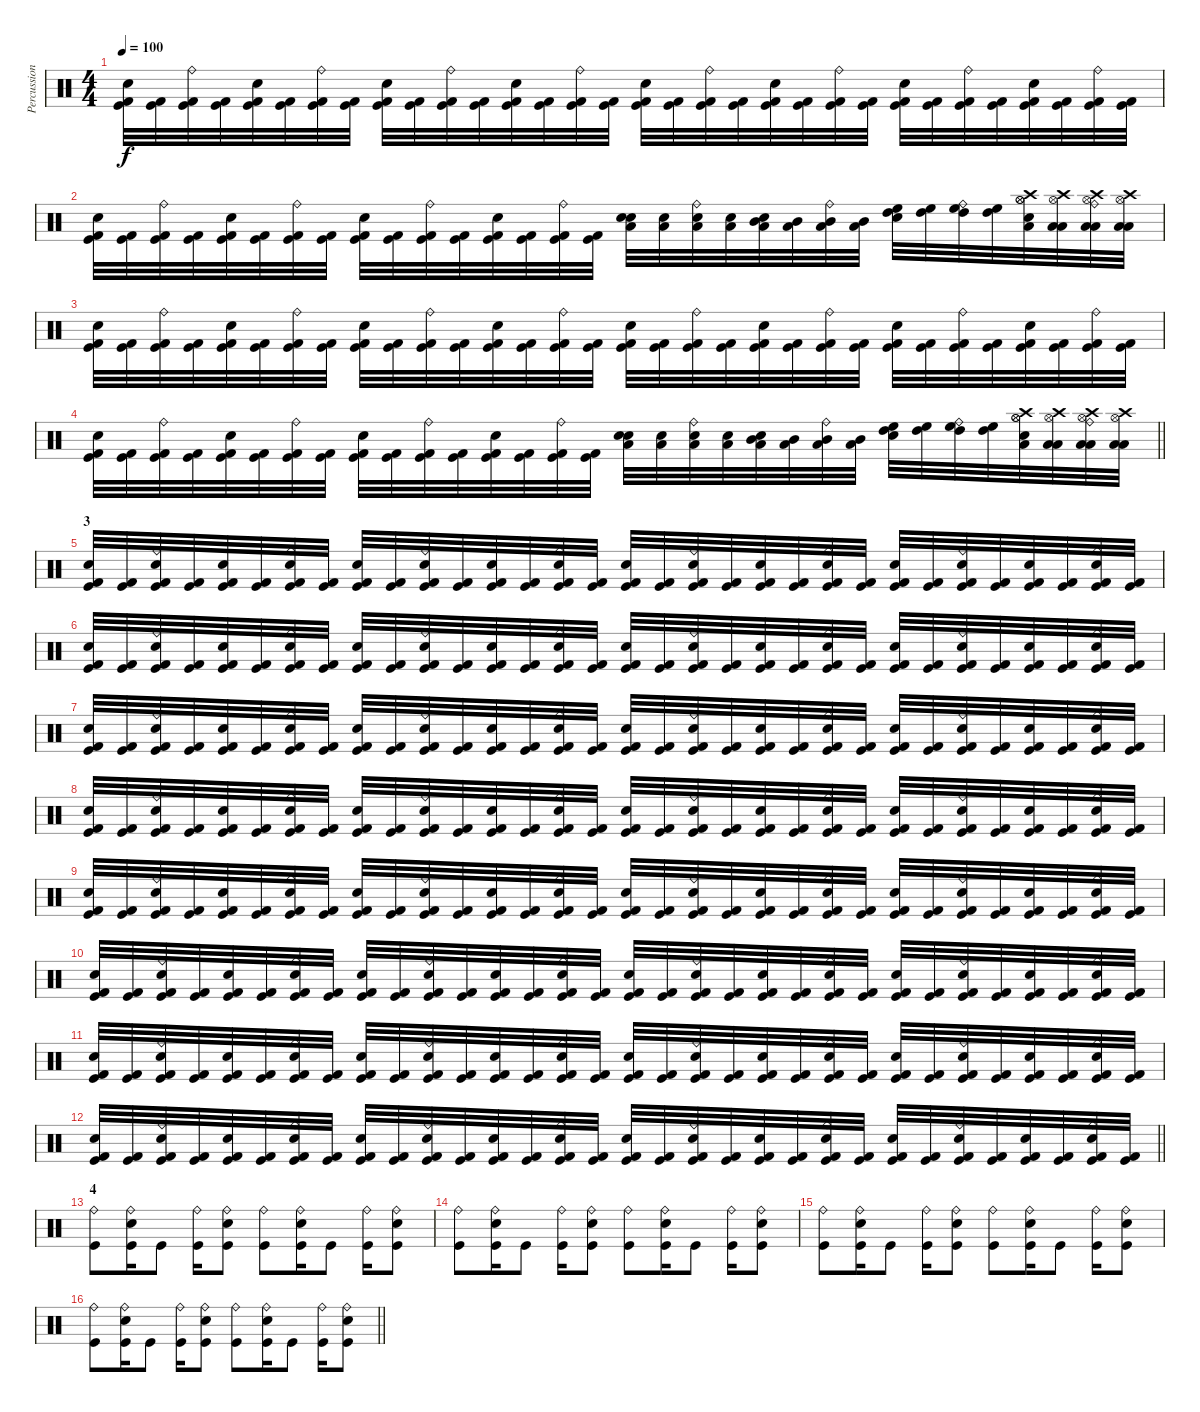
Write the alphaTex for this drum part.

\track ("Percussion" "Percussion") {instrument percussion}
\staff {score}
\articulation defaults
\ts (4 4)
\tempo 100
\clef neutral
\ks c
("Snare (hit) 2" "Kick (hit) 2" "Kick (hit)").32{dy f} ("Kick (hit) 2" "Kick (hit)").32 ("Ride (bell)" "Kick (hit) 2" "Kick (hit)").32 ("Kick (hit) 2" "Kick (hit)").32 ("Electric Snare (hit)" "Kick (hit) 2" "Kick (hit)").32 ("Kick (hit) 2" "Kick (hit)").32 ("Ride (bell)" "Kick (hit) 2" "Kick (hit)").32 ("Kick (hit) 2" "Kick (hit)").32 ("Electric Snare (hit)" "Kick (hit) 2" "Kick (hit)").32 ("Kick (hit) 2" "Kick (hit)").32 ("Ride (bell)" "Kick (hit) 2" "Kick (hit)").32 ("Kick (hit) 2" "Kick (hit)").32 ("Electric Snare (hit)" "Kick (hit) 2" "Kick (hit)").32 ("Kick (hit) 2" "Kick (hit)").32 ("Ride (bell)" "Kick (hit) 2" "Kick (hit)").32 ("Kick (hit) 2" "Kick (hit)").32 ("Snare (hit) 2" "Kick (hit) 2" "Kick (hit)").32 ("Kick (hit) 2" "Kick (hit)").32 ("Ride (bell)" "Kick (hit) 2" "Kick (hit)").32 ("Kick (hit) 2" "Kick (hit)").32 ("Electric Snare (hit)" "Kick (hit) 2" "Kick (hit)").32 ("Kick (hit) 2" "Kick (hit)").32 ("Ride (bell)" "Kick (hit) 2" "Kick (hit)").32 ("Kick (hit) 2" "Kick (hit)").32 ("Electric Snare (hit)" "Kick (hit) 2" "Kick (hit)").32 ("Kick (hit) 2" "Kick (hit)").32 ("Ride (bell)" "Kick (hit) 2" "Kick (hit)").32 ("Kick (hit) 2" "Kick (hit)").32 ("Electric Snare (hit)" "Kick (hit) 2" "Kick (hit)").32 ("Kick (hit) 2" "Kick (hit)").32 ("Ride (bell)" "Kick (hit) 2" "Kick (hit)").32 ("Kick (hit) 2" "Kick (hit)").32 |
("Snare (hit) 2" "Kick (hit) 2" "Kick (hit)").32 ("Kick (hit) 2" "Kick (hit)").32 ("Ride (bell)" "Kick (hit) 2" "Kick (hit)").32 ("Kick (hit) 2" "Kick (hit)").32 ("Electric Snare (hit)" "Kick (hit) 2" "Kick (hit)").32 ("Kick (hit) 2" "Kick (hit)").32 ("Ride (bell)" "Kick (hit) 2" "Kick (hit)").32 ("Kick (hit) 2" "Kick (hit)").32 ("Electric Snare (hit)" "Kick (hit) 2" "Kick (hit)").32 ("Kick (hit) 2" "Kick (hit)").32 ("Ride (bell)" "Kick (hit) 2" "Kick (hit)").32 ("Kick (hit) 2" "Kick (hit)").32 ("Electric Snare (hit)" "Kick (hit) 2" "Kick (hit)").32 ("Kick (hit) 2" "Kick (hit)").32 ("Ride (bell)" "Kick (hit) 2" "Kick (hit)").32 ("Kick (hit) 2" "Kick (hit)").32 ("Snare (hit) 2" "Low Floor Tom (hit)" "Electric Snare (hit)").32 ("Low Floor Tom (hit)" "Electric Snare (hit)").32 ("Ride (bell)" "Low Floor Tom (hit)" "Electric Snare (hit)").32 ("Low Floor Tom (hit)" "Electric Snare (hit)").32 ("Electric Snare (hit)" "Mid Tom (hit)" "Low Tom (hit)").32 ("Mid Tom (hit)" "Low Tom (hit)").32 ("Ride (bell)" "Mid Tom (hit)" "Low Tom (hit)").32 ("Mid Tom (hit)" "Low Tom (hit)").32 ("Electric Snare (hit)" "High Tom (hit)" "High Floor Tom (hit)").32 ("High Tom (hit)" "High Floor Tom (hit)").32 ("Ride (bell)" "High Tom (hit)" "High Floor Tom (hit)").32 ("High Tom (hit)" "High Floor Tom (hit)").32 ("Electric Snare (hit)" "Crash high (hit)" "Hi-Hat (open)" "Hi-Hat (open)" "Low Tom (hit)").32 ("Crash high (hit)" "Hi-Hat (open)" "Low Floor Tom (hit)" "Low Tom (hit)").32 ("Ride (bell)" "Crash high (hit)" "Hi-Hat (open)" "Low Floor Tom (hit)" "Low Tom (hit)").32 ("Crash high (hit)" "Hi-Hat (open)" "Low Floor Tom (hit)" "Low Tom (hit)").32 |
("Snare (hit) 2" "Kick (hit) 2" "Kick (hit)").32 ("Kick (hit) 2" "Kick (hit)").32 ("Ride (bell)" "Kick (hit) 2" "Kick (hit)").32 ("Kick (hit) 2" "Kick (hit)").32 ("Electric Snare (hit)" "Kick (hit) 2" "Kick (hit)").32 ("Kick (hit) 2" "Kick (hit)").32 ("Ride (bell)" "Kick (hit) 2" "Kick (hit)").32 ("Kick (hit) 2" "Kick (hit)").32 ("Electric Snare (hit)" "Kick (hit) 2" "Kick (hit)").32 ("Kick (hit) 2" "Kick (hit)").32 ("Ride (bell)" "Kick (hit) 2" "Kick (hit)").32 ("Kick (hit) 2" "Kick (hit)").32 ("Electric Snare (hit)" "Kick (hit) 2" "Kick (hit)").32 ("Kick (hit) 2" "Kick (hit)").32 ("Ride (bell)" "Kick (hit) 2" "Kick (hit)").32 ("Kick (hit) 2" "Kick (hit)").32 ("Snare (hit) 2" "Kick (hit) 2" "Kick (hit)").32 ("Kick (hit) 2" "Kick (hit)").32 ("Ride (bell)" "Kick (hit) 2" "Kick (hit)").32 ("Kick (hit) 2" "Kick (hit)").32 ("Electric Snare (hit)" "Kick (hit) 2" "Kick (hit)").32 ("Kick (hit) 2" "Kick (hit)").32 ("Ride (bell)" "Kick (hit) 2" "Kick (hit)").32 ("Kick (hit) 2" "Kick (hit)").32 ("Electric Snare (hit)" "Kick (hit) 2" "Kick (hit)").32 ("Kick (hit) 2" "Kick (hit)").32 ("Ride (bell)" "Kick (hit) 2" "Kick (hit)").32 ("Kick (hit) 2" "Kick (hit)").32 ("Electric Snare (hit)" "Kick (hit) 2" "Kick (hit)").32 ("Kick (hit) 2" "Kick (hit)").32 ("Ride (bell)" "Kick (hit) 2" "Kick (hit)").32 ("Kick (hit) 2" "Kick (hit)").32 |
\barLineRight lightlight
("Snare (hit) 2" "Kick (hit) 2" "Kick (hit)").32 ("Kick (hit) 2" "Kick (hit)").32 ("Ride (bell)" "Kick (hit) 2" "Kick (hit)").32 ("Kick (hit) 2" "Kick (hit)").32 ("Electric Snare (hit)" "Kick (hit) 2" "Kick (hit)").32 ("Kick (hit) 2" "Kick (hit)").32 ("Ride (bell)" "Kick (hit) 2" "Kick (hit)").32 ("Kick (hit) 2" "Kick (hit)").32 ("Electric Snare (hit)" "Kick (hit) 2" "Kick (hit)").32 ("Kick (hit) 2" "Kick (hit)").32 ("Ride (bell)" "Kick (hit) 2" "Kick (hit)").32 ("Kick (hit) 2" "Kick (hit)").32 ("Electric Snare (hit)" "Kick (hit) 2" "Kick (hit)").32 ("Kick (hit) 2" "Kick (hit)").32 ("Ride (bell)" "Kick (hit) 2" "Kick (hit)").32 ("Kick (hit) 2" "Kick (hit)").32 ("Snare (hit) 2" "Low Floor Tom (hit)" "Electric Snare (hit)").32 ("Low Floor Tom (hit)" "Electric Snare (hit)").32 ("Ride (bell)" "Low Floor Tom (hit)" "Electric Snare (hit)").32 ("Low Floor Tom (hit)" "Electric Snare (hit)").32 ("Electric Snare (hit)" "Mid Tom (hit)" "Low Tom (hit)").32 ("Mid Tom (hit)" "Low Tom (hit)").32 ("Ride (bell)" "Mid Tom (hit)" "Low Tom (hit)").32 ("Mid Tom (hit)" "Low Tom (hit)").32 ("Electric Snare (hit)" "High Tom (hit)" "High Floor Tom (hit)").32 ("High Tom (hit)" "High Floor Tom (hit)").32 ("Ride (bell)" "High Tom (hit)" "High Floor Tom (hit)").32 ("High Tom (hit)" "High Floor Tom (hit)").32 ("Electric Snare (hit)" "Crash high (hit)" "Hi-Hat (open)" "Hi-Hat (open)" "Low Tom (hit)").32 ("Crash high (hit)" "Hi-Hat (open)" "Low Floor Tom (hit)" "Low Tom (hit)").32 ("Ride (bell)" "Crash high (hit)" "Hi-Hat (open)" "Low Floor Tom (hit)" "Low Tom (hit)").32 ("Crash high (hit)" "Hi-Hat (open)" "Low Floor Tom (hit)" "Low Tom (hit)").32 |
\section ("" "3")
("Electric Snare (hit)" "Kick (hit) 2" "Kick (hit)").32 ("Kick (hit) 2" "Kick (hit)").32 ("Ride (bell)" "Electric Snare (hit)" "Kick (hit) 2" "Kick (hit)").32 ("Kick (hit) 2" "Kick (hit)").32 ("Electric Snare (hit)" "Kick (hit) 2" "Kick (hit)").32 ("Kick (hit) 2" "Kick (hit)").32 ("Ride (bell)" "Electric Snare (hit)" "Kick (hit) 2" "Kick (hit)").32 ("Kick (hit) 2" "Kick (hit)").32 ("Electric Snare (hit)" "Kick (hit) 2" "Kick (hit)").32 ("Kick (hit) 2" "Kick (hit)").32 ("Ride (bell)" "Electric Snare (hit)" "Kick (hit) 2" "Kick (hit)").32 ("Kick (hit) 2" "Kick (hit)").32 ("Electric Snare (hit)" "Kick (hit) 2" "Kick (hit)").32 ("Kick (hit) 2" "Kick (hit)").32 ("Ride (bell)" "Electric Snare (hit)" "Kick (hit) 2" "Kick (hit)").32 ("Kick (hit) 2" "Kick (hit)").32 ("Electric Snare (hit)" "Kick (hit) 2" "Kick (hit)").32 ("Kick (hit) 2" "Kick (hit)").32 ("Ride (bell)" "Electric Snare (hit)" "Kick (hit) 2" "Kick (hit)").32 ("Kick (hit) 2" "Kick (hit)").32 ("Electric Snare (hit)" "Kick (hit) 2" "Kick (hit)").32 ("Kick (hit) 2" "Kick (hit)").32 ("Ride (bell)" "Electric Snare (hit)" "Kick (hit) 2" "Kick (hit)").32 ("Kick (hit) 2" "Kick (hit)").32 ("Electric Snare (hit)" "Kick (hit) 2" "Kick (hit)").32 ("Kick (hit) 2" "Kick (hit)").32 ("Ride (bell)" "Electric Snare (hit)" "Kick (hit) 2" "Kick (hit)").32 ("Kick (hit) 2" "Kick (hit)").32 ("Electric Snare (hit)" "Kick (hit) 2" "Kick (hit)").32 ("Kick (hit) 2" "Kick (hit)").32 ("Ride (bell)" "Electric Snare (hit)" "Kick (hit) 2" "Kick (hit)").32 ("Kick (hit) 2" "Kick (hit)").32 |
("Electric Snare (hit)" "Kick (hit) 2" "Kick (hit)").32 ("Kick (hit) 2" "Kick (hit)").32 ("Ride (bell)" "Electric Snare (hit)" "Kick (hit) 2" "Kick (hit)").32 ("Kick (hit) 2" "Kick (hit)").32 ("Electric Snare (hit)" "Kick (hit) 2" "Kick (hit)").32 ("Kick (hit) 2" "Kick (hit)").32 ("Ride (bell)" "Electric Snare (hit)" "Kick (hit) 2" "Kick (hit)").32 ("Kick (hit) 2" "Kick (hit)").32 ("Electric Snare (hit)" "Kick (hit) 2" "Kick (hit)").32 ("Kick (hit) 2" "Kick (hit)").32 ("Ride (bell)" "Electric Snare (hit)" "Kick (hit) 2" "Kick (hit)").32 ("Kick (hit) 2" "Kick (hit)").32 ("Electric Snare (hit)" "Kick (hit) 2" "Kick (hit)").32 ("Kick (hit) 2" "Kick (hit)").32 ("Ride (bell)" "Electric Snare (hit)" "Kick (hit) 2" "Kick (hit)").32 ("Kick (hit) 2" "Kick (hit)").32 ("Electric Snare (hit)" "Kick (hit) 2" "Kick (hit)").32 ("Kick (hit) 2" "Kick (hit)").32 ("Ride (bell)" "Electric Snare (hit)" "Kick (hit) 2" "Kick (hit)").32 ("Kick (hit) 2" "Kick (hit)").32 ("Electric Snare (hit)" "Kick (hit) 2" "Kick (hit)").32 ("Kick (hit) 2" "Kick (hit)").32 ("Ride (bell)" "Electric Snare (hit)" "Kick (hit) 2" "Kick (hit)").32 ("Kick (hit) 2" "Kick (hit)").32 ("Electric Snare (hit)" "Kick (hit) 2" "Kick (hit)").32 ("Kick (hit) 2" "Kick (hit)").32 ("Ride (bell)" "Electric Snare (hit)" "Kick (hit) 2" "Kick (hit)").32 ("Kick (hit) 2" "Kick (hit)").32 ("Electric Snare (hit)" "Kick (hit) 2" "Kick (hit)").32 ("Kick (hit) 2" "Kick (hit)").32 ("Ride (bell)" "Electric Snare (hit)" "Kick (hit) 2" "Kick (hit)").32 ("Kick (hit) 2" "Kick (hit)").32 |
("Electric Snare (hit)" "Kick (hit) 2" "Kick (hit)").32 ("Kick (hit) 2" "Kick (hit)").32 ("Ride (bell)" "Electric Snare (hit)" "Kick (hit) 2" "Kick (hit)").32 ("Kick (hit) 2" "Kick (hit)").32 ("Electric Snare (hit)" "Kick (hit) 2" "Kick (hit)").32 ("Kick (hit) 2" "Kick (hit)").32 ("Ride (bell)" "Electric Snare (hit)" "Kick (hit) 2" "Kick (hit)").32 ("Kick (hit) 2" "Kick (hit)").32 ("Electric Snare (hit)" "Kick (hit) 2" "Kick (hit)").32 ("Kick (hit) 2" "Kick (hit)").32 ("Ride (bell)" "Electric Snare (hit)" "Kick (hit) 2" "Kick (hit)").32 ("Kick (hit) 2" "Kick (hit)").32 ("Electric Snare (hit)" "Kick (hit) 2" "Kick (hit)").32 ("Kick (hit) 2" "Kick (hit)").32 ("Ride (bell)" "Electric Snare (hit)" "Kick (hit) 2" "Kick (hit)").32 ("Kick (hit) 2" "Kick (hit)").32 ("Electric Snare (hit)" "Kick (hit) 2" "Kick (hit)").32 ("Kick (hit) 2" "Kick (hit)").32 ("Ride (bell)" "Electric Snare (hit)" "Kick (hit) 2" "Kick (hit)").32 ("Kick (hit) 2" "Kick (hit)").32 ("Electric Snare (hit)" "Kick (hit) 2" "Kick (hit)").32 ("Kick (hit) 2" "Kick (hit)").32 ("Ride (bell)" "Electric Snare (hit)" "Kick (hit) 2" "Kick (hit)").32 ("Kick (hit) 2" "Kick (hit)").32 ("Electric Snare (hit)" "Kick (hit) 2" "Kick (hit)").32 ("Kick (hit) 2" "Kick (hit)").32 ("Ride (bell)" "Electric Snare (hit)" "Kick (hit) 2" "Kick (hit)").32 ("Kick (hit) 2" "Kick (hit)").32 ("Electric Snare (hit)" "Kick (hit) 2" "Kick (hit)").32 ("Kick (hit) 2" "Kick (hit)").32 ("Ride (bell)" "Electric Snare (hit)" "Kick (hit) 2" "Kick (hit)").32 ("Kick (hit) 2" "Kick (hit)").32 |
("Electric Snare (hit)" "Kick (hit) 2" "Kick (hit)").32 ("Kick (hit) 2" "Kick (hit)").32 ("Ride (bell)" "Electric Snare (hit)" "Kick (hit) 2" "Kick (hit)").32 ("Kick (hit) 2" "Kick (hit)").32 ("Electric Snare (hit)" "Kick (hit) 2" "Kick (hit)").32 ("Kick (hit) 2" "Kick (hit)").32 ("Ride (bell)" "Electric Snare (hit)" "Kick (hit) 2" "Kick (hit)").32 ("Kick (hit) 2" "Kick (hit)").32 ("Electric Snare (hit)" "Kick (hit) 2" "Kick (hit)").32 ("Kick (hit) 2" "Kick (hit)").32 ("Ride (bell)" "Electric Snare (hit)" "Kick (hit) 2" "Kick (hit)").32 ("Kick (hit) 2" "Kick (hit)").32 ("Electric Snare (hit)" "Kick (hit) 2" "Kick (hit)").32 ("Kick (hit) 2" "Kick (hit)").32 ("Ride (bell)" "Electric Snare (hit)" "Kick (hit) 2" "Kick (hit)").32 ("Kick (hit) 2" "Kick (hit)").32 ("Electric Snare (hit)" "Kick (hit) 2" "Kick (hit)").32 ("Kick (hit) 2" "Kick (hit)").32 ("Ride (bell)" "Electric Snare (hit)" "Kick (hit) 2" "Kick (hit)").32 ("Kick (hit) 2" "Kick (hit)").32 ("Electric Snare (hit)" "Kick (hit) 2" "Kick (hit)").32 ("Kick (hit) 2" "Kick (hit)").32 ("Ride (bell)" "Electric Snare (hit)" "Kick (hit) 2" "Kick (hit)").32 ("Kick (hit) 2" "Kick (hit)").32 ("Electric Snare (hit)" "Kick (hit) 2" "Kick (hit)").32 ("Kick (hit) 2" "Kick (hit)").32 ("Ride (bell)" "Electric Snare (hit)" "Kick (hit) 2" "Kick (hit)").32 ("Kick (hit) 2" "Kick (hit)").32 ("Electric Snare (hit)" "Kick (hit) 2" "Kick (hit)").32 ("Kick (hit) 2" "Kick (hit)").32 ("Ride (bell)" "Electric Snare (hit)" "Kick (hit) 2" "Kick (hit)").32 ("Kick (hit) 2" "Kick (hit)").32 |
("Electric Snare (hit)" "Kick (hit) 2" "Kick (hit)").32 ("Kick (hit) 2" "Kick (hit)").32 ("Ride (bell)" "Electric Snare (hit)" "Kick (hit) 2" "Kick (hit)").32 ("Kick (hit) 2" "Kick (hit)").32 ("Electric Snare (hit)" "Kick (hit) 2" "Kick (hit)").32 ("Kick (hit) 2" "Kick (hit)").32 ("Ride (bell)" "Electric Snare (hit)" "Kick (hit) 2" "Kick (hit)").32 ("Kick (hit) 2" "Kick (hit)").32 ("Electric Snare (hit)" "Kick (hit) 2" "Kick (hit)").32 ("Kick (hit) 2" "Kick (hit)").32 ("Ride (bell)" "Electric Snare (hit)" "Kick (hit) 2" "Kick (hit)").32 ("Kick (hit) 2" "Kick (hit)").32 ("Electric Snare (hit)" "Kick (hit) 2" "Kick (hit)").32 ("Kick (hit) 2" "Kick (hit)").32 ("Ride (bell)" "Electric Snare (hit)" "Kick (hit) 2" "Kick (hit)").32 ("Kick (hit) 2" "Kick (hit)").32 ("Electric Snare (hit)" "Kick (hit) 2" "Kick (hit)").32 ("Kick (hit) 2" "Kick (hit)").32 ("Ride (bell)" "Electric Snare (hit)" "Kick (hit) 2" "Kick (hit)").32 ("Kick (hit) 2" "Kick (hit)").32 ("Electric Snare (hit)" "Kick (hit) 2" "Kick (hit)").32 ("Kick (hit) 2" "Kick (hit)").32 ("Ride (bell)" "Electric Snare (hit)" "Kick (hit) 2" "Kick (hit)").32 ("Kick (hit) 2" "Kick (hit)").32 ("Electric Snare (hit)" "Kick (hit) 2" "Kick (hit)").32 ("Kick (hit) 2" "Kick (hit)").32 ("Ride (bell)" "Electric Snare (hit)" "Kick (hit) 2" "Kick (hit)").32 ("Kick (hit) 2" "Kick (hit)").32 ("Electric Snare (hit)" "Kick (hit) 2" "Kick (hit)").32 ("Kick (hit) 2" "Kick (hit)").32 ("Ride (bell)" "Electric Snare (hit)" "Kick (hit) 2" "Kick (hit)").32 ("Kick (hit) 2" "Kick (hit)").32 |
("Electric Snare (hit)" "Kick (hit) 2" "Kick (hit)").32 ("Kick (hit) 2" "Kick (hit)").32 ("Ride (bell)" "Electric Snare (hit)" "Kick (hit) 2" "Kick (hit)").32 ("Kick (hit) 2" "Kick (hit)").32 ("Electric Snare (hit)" "Kick (hit) 2" "Kick (hit)").32 ("Kick (hit) 2" "Kick (hit)").32 ("Ride (bell)" "Electric Snare (hit)" "Kick (hit) 2" "Kick (hit)").32 ("Kick (hit) 2" "Kick (hit)").32 ("Electric Snare (hit)" "Kick (hit) 2" "Kick (hit)").32 ("Kick (hit) 2" "Kick (hit)").32 ("Ride (bell)" "Electric Snare (hit)" "Kick (hit) 2" "Kick (hit)").32 ("Kick (hit) 2" "Kick (hit)").32 ("Electric Snare (hit)" "Kick (hit) 2" "Kick (hit)").32 ("Kick (hit) 2" "Kick (hit)").32 ("Ride (bell)" "Electric Snare (hit)" "Kick (hit) 2" "Kick (hit)").32 ("Kick (hit) 2" "Kick (hit)").32 ("Electric Snare (hit)" "Kick (hit) 2" "Kick (hit)").32 ("Kick (hit) 2" "Kick (hit)").32 ("Ride (bell)" "Electric Snare (hit)" "Kick (hit) 2" "Kick (hit)").32 ("Kick (hit) 2" "Kick (hit)").32 ("Electric Snare (hit)" "Kick (hit) 2" "Kick (hit)").32 ("Kick (hit) 2" "Kick (hit)").32 ("Ride (bell)" "Electric Snare (hit)" "Kick (hit) 2" "Kick (hit)").32 ("Kick (hit) 2" "Kick (hit)").32 ("Electric Snare (hit)" "Kick (hit) 2" "Kick (hit)").32 ("Kick (hit) 2" "Kick (hit)").32 ("Ride (bell)" "Electric Snare (hit)" "Kick (hit) 2" "Kick (hit)").32 ("Kick (hit) 2" "Kick (hit)").32 ("Electric Snare (hit)" "Kick (hit) 2" "Kick (hit)").32 ("Kick (hit) 2" "Kick (hit)").32 ("Ride (bell)" "Electric Snare (hit)" "Kick (hit) 2" "Kick (hit)").32 ("Kick (hit) 2" "Kick (hit)").32 |
("Electric Snare (hit)" "Kick (hit) 2" "Kick (hit)").32 ("Kick (hit) 2" "Kick (hit)").32 ("Ride (bell)" "Electric Snare (hit)" "Kick (hit) 2" "Kick (hit)").32 ("Kick (hit) 2" "Kick (hit)").32 ("Electric Snare (hit)" "Kick (hit) 2" "Kick (hit)").32 ("Kick (hit) 2" "Kick (hit)").32 ("Ride (bell)" "Electric Snare (hit)" "Kick (hit) 2" "Kick (hit)").32 ("Kick (hit) 2" "Kick (hit)").32 ("Electric Snare (hit)" "Kick (hit) 2" "Kick (hit)").32 ("Kick (hit) 2" "Kick (hit)").32 ("Ride (bell)" "Electric Snare (hit)" "Kick (hit) 2" "Kick (hit)").32 ("Kick (hit) 2" "Kick (hit)").32 ("Electric Snare (hit)" "Kick (hit) 2" "Kick (hit)").32 ("Kick (hit) 2" "Kick (hit)").32 ("Ride (bell)" "Electric Snare (hit)" "Kick (hit) 2" "Kick (hit)").32 ("Kick (hit) 2" "Kick (hit)").32 ("Electric Snare (hit)" "Kick (hit) 2" "Kick (hit)").32 ("Kick (hit) 2" "Kick (hit)").32 ("Ride (bell)" "Electric Snare (hit)" "Kick (hit) 2" "Kick (hit)").32 ("Kick (hit) 2" "Kick (hit)").32 ("Electric Snare (hit)" "Kick (hit) 2" "Kick (hit)").32 ("Kick (hit) 2" "Kick (hit)").32 ("Ride (bell)" "Electric Snare (hit)" "Kick (hit) 2" "Kick (hit)").32 ("Kick (hit) 2" "Kick (hit)").32 ("Electric Snare (hit)" "Kick (hit) 2" "Kick (hit)").32 ("Kick (hit) 2" "Kick (hit)").32 ("Ride (bell)" "Electric Snare (hit)" "Kick (hit) 2" "Kick (hit)").32 ("Kick (hit) 2" "Kick (hit)").32 ("Electric Snare (hit)" "Kick (hit) 2" "Kick (hit)").32 ("Kick (hit) 2" "Kick (hit)").32 ("Ride (bell)" "Electric Snare (hit)" "Kick (hit) 2" "Kick (hit)").32 ("Kick (hit) 2" "Kick (hit)").32 |
\barLineRight lightlight
("Electric Snare (hit)" "Kick (hit) 2" "Kick (hit)").32 ("Kick (hit) 2" "Kick (hit)").32 ("Ride (bell)" "Electric Snare (hit)" "Kick (hit) 2" "Kick (hit)").32 ("Kick (hit) 2" "Kick (hit)").32 ("Electric Snare (hit)" "Kick (hit) 2" "Kick (hit)").32 ("Kick (hit) 2" "Kick (hit)").32 ("Ride (bell)" "Electric Snare (hit)" "Kick (hit) 2" "Kick (hit)").32 ("Kick (hit) 2" "Kick (hit)").32 ("Electric Snare (hit)" "Kick (hit) 2" "Kick (hit)").32 ("Kick (hit) 2" "Kick (hit)").32 ("Ride (bell)" "Electric Snare (hit)" "Kick (hit) 2" "Kick (hit)").32 ("Kick (hit) 2" "Kick (hit)").32 ("Electric Snare (hit)" "Kick (hit) 2" "Kick (hit)").32 ("Kick (hit) 2" "Kick (hit)").32 ("Ride (bell)" "Electric Snare (hit)" "Kick (hit) 2" "Kick (hit)").32 ("Kick (hit) 2" "Kick (hit)").32 ("Electric Snare (hit)" "Kick (hit) 2" "Kick (hit)").32 ("Kick (hit) 2" "Kick (hit)").32 ("Ride (bell)" "Electric Snare (hit)" "Kick (hit) 2" "Kick (hit)").32 ("Kick (hit) 2" "Kick (hit)").32 ("Electric Snare (hit)" "Kick (hit) 2" "Kick (hit)").32 ("Kick (hit) 2" "Kick (hit)").32 ("Ride (bell)" "Electric Snare (hit)" "Kick (hit) 2" "Kick (hit)").32 ("Kick (hit) 2" "Kick (hit)").32 ("Electric Snare (hit)" "Kick (hit) 2" "Kick (hit)").32 ("Kick (hit) 2" "Kick (hit)").32 ("Ride (bell)" "Electric Snare (hit)" "Kick (hit) 2" "Kick (hit)").32 ("Kick (hit) 2" "Kick (hit)").32 ("Electric Snare (hit)" "Kick (hit) 2" "Kick (hit)").32 ("Kick (hit) 2" "Kick (hit)").32 ("Ride (bell)" "Electric Snare (hit)" "Kick (hit) 2" "Kick (hit)").32 ("Kick (hit) 2" "Kick (hit)").32 |
\section ("" "4")
("Ride (bell)" "Kick (hit)").8 ("Ride (bell)" "Snare (hit) 2" "Kick (hit)").16 "Kick (hit)".8 ("Ride (bell)" "Kick (hit)").16 ("Ride (bell)" "Snare (hit) 2" "Kick (hit)").8 ("Ride (bell)" "Kick (hit)").8 ("Ride (bell)" "Snare (hit) 2" "Kick (hit)").16 "Kick (hit)".8 ("Ride (bell)" "Kick (hit)").16 ("Ride (bell)" "Snare (hit) 2" "Kick (hit)").8 |
("Ride (bell)" "Kick (hit)").8 ("Ride (bell)" "Snare (hit) 2" "Kick (hit)").16 "Kick (hit)".8 ("Ride (bell)" "Kick (hit)").16 ("Ride (bell)" "Snare (hit) 2" "Kick (hit)").8 ("Ride (bell)" "Kick (hit)").8 ("Ride (bell)" "Snare (hit) 2" "Kick (hit)").16 "Kick (hit)".8 ("Ride (bell)" "Kick (hit)").16 ("Ride (bell)" "Snare (hit) 2" "Kick (hit)").8 |
("Ride (bell)" "Kick (hit)").8 ("Ride (bell)" "Snare (hit) 2" "Kick (hit)").16 "Kick (hit)".8 ("Ride (bell)" "Kick (hit)").16 ("Ride (bell)" "Snare (hit) 2" "Kick (hit)").8 ("Ride (bell)" "Kick (hit)").8 ("Ride (bell)" "Snare (hit) 2" "Kick (hit)").16 "Kick (hit)".8 ("Ride (bell)" "Kick (hit)").16 ("Ride (bell)" "Snare (hit) 2" "Kick (hit)").8 |
\barLineRight lightlight
("Ride (bell)" "Kick (hit)").8 ("Ride (bell)" "Snare (hit) 2" "Kick (hit)").16 "Kick (hit)".8 ("Ride (bell)" "Kick (hit)").16 ("Ride (bell)" "Snare (hit) 2" "Kick (hit)").8 ("Ride (bell)" "Kick (hit)").8 ("Ride (bell)" "Snare (hit) 2" "Kick (hit)").16 "Kick (hit)".8 ("Ride (bell)" "Kick (hit)").16 ("Ride (bell)" "Snare (hit) 2" "Kick (hit)").8
